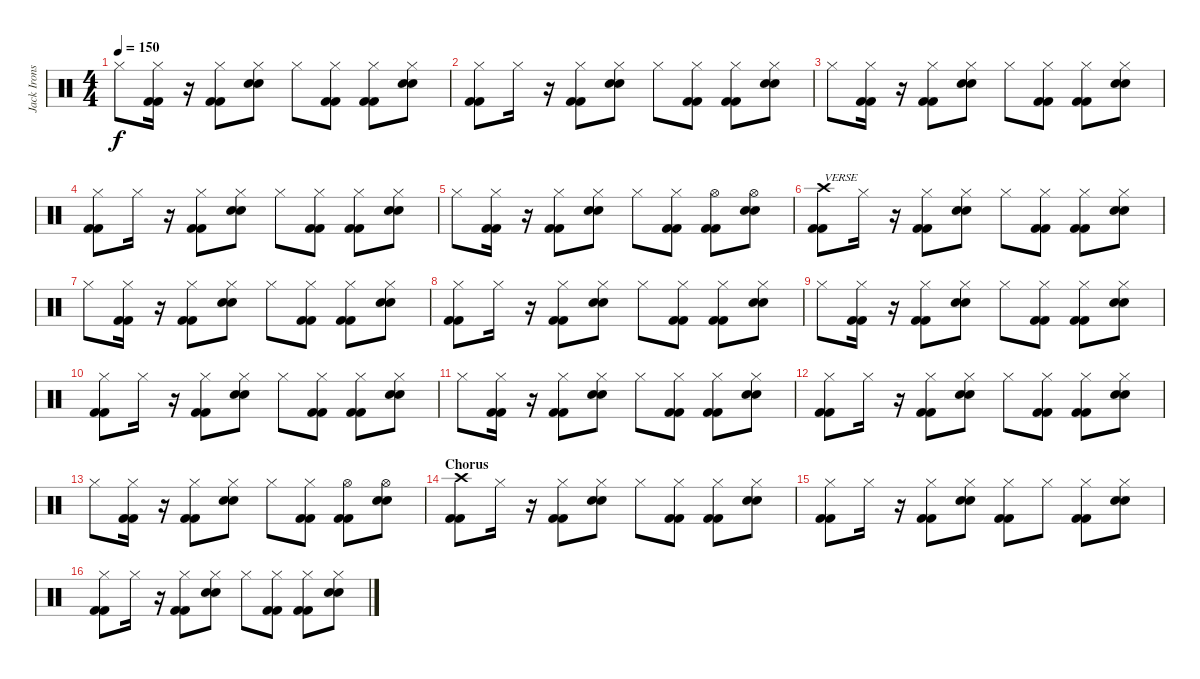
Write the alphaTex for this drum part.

\track ("Jack Irons" "Jack Irons") {instrument percussion}
\staff {score}
\articulation defaults
\ts (4 4)
\tempo 150
\clef neutral
\ks c "Hi-Hat (closed)".8{dy f}
("Hi-Hat (closed)" "Kick (hit) 2" "Kick (hit) 2").16 r.16 ("Hi-Hat (closed)" "Kick (hit) 2" "Kick (hit) 2").8 ("Hi-Hat (closed)" "Electric Snare (hit)" "Electric Snare (hit)").8 "Hi-Hat (closed)".8 ("Hi-Hat (closed)" "Kick (hit) 2" "Kick (hit) 2").8 ("Hi-Hat (closed)" "Kick (hit) 2" "Kick (hit) 2").8 ("Hi-Hat (closed)" "Electric Snare (hit)" "Electric Snare (hit)").8 |
("Hi-Hat (closed)" "Kick (hit) 2" "Kick (hit) 2").8 "Hi-Hat (closed)".16 r.16 ("Hi-Hat (closed)" "Kick (hit) 2" "Kick (hit) 2").8 ("Hi-Hat (closed)" "Electric Snare (hit)" "Electric Snare (hit)").8 "Hi-Hat (closed)".8 ("Hi-Hat (closed)" "Kick (hit) 2" "Kick (hit) 2").8 ("Hi-Hat (closed)" "Kick (hit) 2" "Kick (hit) 2").8 ("Hi-Hat (closed)" "Electric Snare (hit)" "Electric Snare (hit)").8 |
"Hi-Hat (closed)".8 ("Hi-Hat (closed)" "Kick (hit) 2" "Kick (hit) 2").16 r.16 ("Hi-Hat (closed)" "Kick (hit) 2" "Kick (hit) 2").8 ("Hi-Hat (closed)" "Electric Snare (hit)" "Electric Snare (hit)").8 "Hi-Hat (closed)".8 ("Hi-Hat (closed)" "Kick (hit) 2" "Kick (hit) 2").8 ("Hi-Hat (closed)" "Kick (hit) 2" "Kick (hit) 2").8 ("Hi-Hat (closed)" "Electric Snare (hit)" "Electric Snare (hit)").8 |
("Hi-Hat (closed)" "Kick (hit) 2" "Kick (hit) 2").8 "Hi-Hat (closed)".16 r.16 ("Hi-Hat (closed)" "Kick (hit) 2" "Kick (hit) 2").8 ("Hi-Hat (closed)" "Electric Snare (hit)" "Electric Snare (hit)").8 "Hi-Hat (closed)".8 ("Hi-Hat (closed)" "Kick (hit) 2" "Kick (hit) 2").8 ("Hi-Hat (closed)" "Kick (hit) 2" "Kick (hit) 2").8 ("Hi-Hat (closed)" "Electric Snare (hit)" "Electric Snare (hit)").8 |
"Hi-Hat (closed)".8 ("Hi-Hat (closed)" "Kick (hit) 2" "Kick (hit) 2").16 r.16 ("Hi-Hat (closed)" "Kick (hit) 2" "Kick (hit) 2").8 ("Hi-Hat (closed)" "Electric Snare (hit)" "Electric Snare (hit)").8 "Hi-Hat (closed)".8 ("Hi-Hat (closed)" "Kick (hit) 2" "Kick (hit) 2").8 ("Hi-Hat (open)" "Kick (hit) 2" "Kick (hit) 2").8 ("Hi-Hat (open)" "Electric Snare (hit)" "Electric Snare (hit)").8 |
("Crash high (hit)" "Kick (hit) 2" "Kick (hit) 2").8{txt "VERSE"} "Hi-Hat (closed)".16 r.16 ("Hi-Hat (closed)" "Kick (hit) 2" "Kick (hit) 2").8 ("Hi-Hat (closed)" "Electric Snare (hit)" "Electric Snare (hit)").8 "Hi-Hat (closed)".8 ("Hi-Hat (closed)" "Kick (hit) 2" "Kick (hit) 2").8 ("Hi-Hat (closed)" "Kick (hit) 2" "Kick (hit) 2").8 ("Hi-Hat (closed)" "Electric Snare (hit)" "Electric Snare (hit)").8 |
"Hi-Hat (closed)".8 ("Hi-Hat (closed)" "Kick (hit) 2" "Kick (hit) 2").16 r.16 ("Hi-Hat (closed)" "Kick (hit) 2" "Kick (hit) 2").8 ("Hi-Hat (closed)" "Electric Snare (hit)" "Electric Snare (hit)").8 "Hi-Hat (closed)".8 ("Hi-Hat (closed)" "Kick (hit) 2" "Kick (hit) 2").8 ("Hi-Hat (closed)" "Kick (hit) 2" "Kick (hit) 2").8 ("Hi-Hat (closed)" "Electric Snare (hit)" "Electric Snare (hit)").8 |
("Hi-Hat (closed)" "Kick (hit) 2" "Kick (hit) 2").8 "Hi-Hat (closed)".16 r.16 ("Hi-Hat (closed)" "Kick (hit) 2" "Kick (hit) 2").8 ("Hi-Hat (closed)" "Electric Snare (hit)" "Electric Snare (hit)").8 "Hi-Hat (closed)".8 ("Hi-Hat (closed)" "Kick (hit) 2" "Kick (hit) 2").8 ("Hi-Hat (closed)" "Kick (hit) 2" "Kick (hit) 2").8 ("Hi-Hat (closed)" "Electric Snare (hit)" "Electric Snare (hit)").8 |
"Hi-Hat (closed)".8 ("Hi-Hat (closed)" "Kick (hit) 2" "Kick (hit) 2").16 r.16 ("Hi-Hat (closed)" "Kick (hit) 2" "Kick (hit) 2").8 ("Hi-Hat (closed)" "Electric Snare (hit)" "Electric Snare (hit)").8 "Hi-Hat (closed)".8 ("Hi-Hat (closed)" "Kick (hit) 2" "Kick (hit) 2").8 ("Hi-Hat (closed)" "Kick (hit) 2" "Kick (hit) 2").8 ("Hi-Hat (closed)" "Electric Snare (hit)" "Electric Snare (hit)").8 |
("Hi-Hat (closed)" "Kick (hit) 2" "Kick (hit) 2").8 "Hi-Hat (closed)".16 r.16 ("Hi-Hat (closed)" "Kick (hit) 2" "Kick (hit) 2").8 ("Hi-Hat (closed)" "Electric Snare (hit)" "Electric Snare (hit)").8 "Hi-Hat (closed)".8 ("Hi-Hat (closed)" "Kick (hit) 2" "Kick (hit) 2").8 ("Hi-Hat (closed)" "Kick (hit) 2" "Kick (hit) 2").8 ("Hi-Hat (closed)" "Electric Snare (hit)" "Electric Snare (hit)").8 |
"Hi-Hat (closed)".8 ("Hi-Hat (closed)" "Kick (hit) 2" "Kick (hit) 2").16 r.16 ("Hi-Hat (closed)" "Kick (hit) 2" "Kick (hit) 2").8 ("Hi-Hat (closed)" "Electric Snare (hit)" "Electric Snare (hit)").8 "Hi-Hat (closed)".8 ("Hi-Hat (closed)" "Kick (hit) 2" "Kick (hit) 2").8 ("Hi-Hat (closed)" "Kick (hit) 2" "Kick (hit) 2").8 ("Hi-Hat (closed)" "Electric Snare (hit)" "Electric Snare (hit)").8 |
("Hi-Hat (closed)" "Kick (hit) 2" "Kick (hit) 2").8 "Hi-Hat (closed)".16 r.16 ("Hi-Hat (closed)" "Kick (hit) 2" "Kick (hit) 2").8 ("Hi-Hat (closed)" "Electric Snare (hit)" "Electric Snare (hit)").8 "Hi-Hat (closed)".8 ("Hi-Hat (closed)" "Kick (hit) 2" "Kick (hit) 2").8 ("Hi-Hat (closed)" "Kick (hit) 2" "Kick (hit) 2").8 ("Hi-Hat (closed)" "Electric Snare (hit)" "Electric Snare (hit)").8 |
"Hi-Hat (closed)".8 ("Hi-Hat (closed)" "Kick (hit) 2" "Kick (hit) 2").16 r.16 ("Hi-Hat (closed)" "Kick (hit) 2" "Kick (hit) 2").8 ("Hi-Hat (closed)" "Electric Snare (hit)" "Electric Snare (hit)").8 "Hi-Hat (closed)".8 ("Hi-Hat (closed)" "Kick (hit) 2" "Kick (hit) 2").8 ("Hi-Hat (open)" "Kick (hit) 2" "Kick (hit) 2").8 ("Hi-Hat (open)" "Electric Snare (hit)" "Electric Snare (hit)").8 |
\section ("" "Chorus")
("Crash high (hit)" "Kick (hit) 2" "Kick (hit) 2").8 "Hi-Hat (closed)".16 r.16 ("Hi-Hat (closed)" "Kick (hit) 2" "Kick (hit) 2").8 ("Hi-Hat (closed)" "Electric Snare (hit)" "Electric Snare (hit)").8 "Hi-Hat (closed)".8 ("Hi-Hat (closed)" "Kick (hit) 2" "Kick (hit) 2").8 ("Hi-Hat (closed)" "Kick (hit) 2" "Kick (hit) 2").8 ("Hi-Hat (closed)" "Electric Snare (hit)" "Electric Snare (hit)").8 |
("Hi-Hat (closed)" "Kick (hit) 2" "Kick (hit) 2").8 "Hi-Hat (closed)".16 r.16 ("Hi-Hat (closed)" "Kick (hit) 2" "Kick (hit) 2").8 ("Hi-Hat (closed)" "Electric Snare (hit)" "Electric Snare (hit)").8 ("Hi-Hat (closed)" "Kick (hit) 2" "Kick (hit) 2").8 "Hi-Hat (closed)".8 ("Hi-Hat (closed)" "Kick (hit) 2" "Kick (hit) 2").8 ("Hi-Hat (closed)" "Electric Snare (hit)" "Electric Snare (hit)").8 |
("Hi-Hat (closed)" "Kick (hit) 2" "Kick (hit) 2").8 "Hi-Hat (closed)".16 r.16 ("Hi-Hat (closed)" "Kick (hit) 2" "Kick (hit) 2").8 ("Hi-Hat (closed)" "Electric Snare (hit)" "Electric Snare (hit)").8 "Hi-Hat (closed)".8 ("Hi-Hat (closed)" "Kick (hit) 2" "Kick (hit) 2").8 ("Hi-Hat (closed)" "Kick (hit) 2" "Kick (hit) 2").8 ("Hi-Hat (closed)" "Electric Snare (hit)" "Electric Snare (hit)").8
